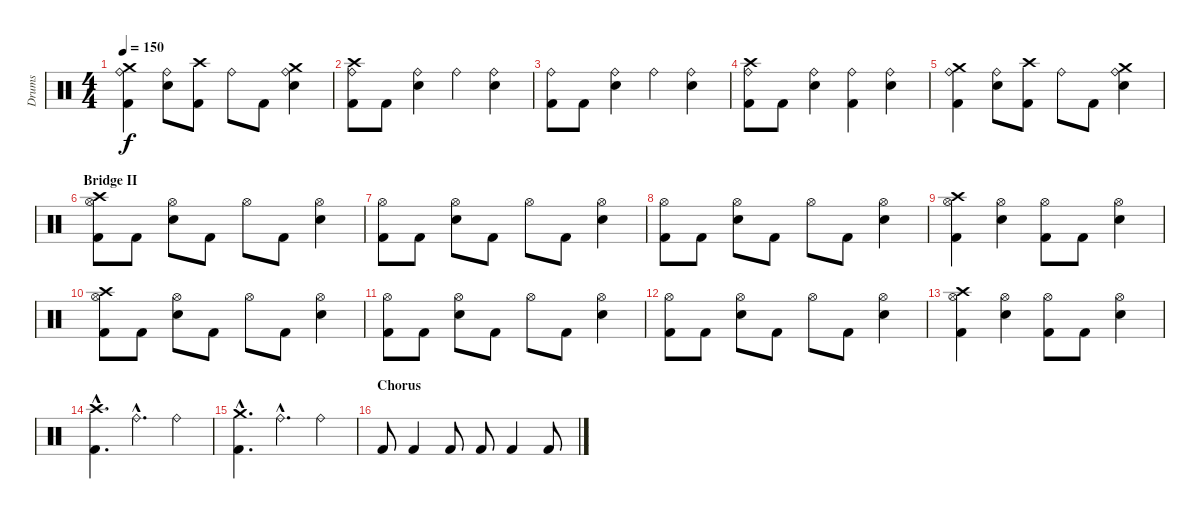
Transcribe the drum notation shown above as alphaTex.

\track ("Drums" "Drums") {instrument percussion}
\staff {score}
\articulation defaults
\ts (4 4)
\tempo 150
\clef neutral
\ks c
("Ride (bell)" "Kick (hit) 2" "Crash medium (hit)").4{dy f} ("Ride (bell)" "Electric Snare (hit)").8 ("Kick (hit) 2" "Crash high (hit)").8 "Ride (bell)".8 "Kick (hit) 2".8 ("Ride (bell)" "Electric Snare (hit)" "Crash medium (hit)").4 |
("Ride (bell)" "Kick (hit) 2" "Crash high (hit)").8 "Kick (hit) 2".8 ("Ride (bell)" "Electric Snare (hit)").4 "Ride (bell)".4 ("Ride (bell)" "Electric Snare (hit)").4 |
("Ride (bell)" "Kick (hit) 2").8 "Kick (hit) 2".8 ("Ride (bell)" "Electric Snare (hit)").4 "Ride (bell)".4 ("Ride (bell)" "Electric Snare (hit)").4 |
("Ride (bell)" "Kick (hit) 2" "Crash high (hit)").8 "Kick (hit) 2".8 ("Ride (bell)" "Electric Snare (hit)").4 ("Ride (bell)" "Kick (hit) 2").4 ("Ride (bell)" "Electric Snare (hit)").4 |
("Ride (bell)" "Kick (hit) 2" "Crash medium (hit)").4 ("Ride (bell)" "Electric Snare (hit)").8 ("Kick (hit) 2" "Crash high (hit)").8 "Ride (bell)".8 "Kick (hit) 2".8 ("Ride (bell)" "Electric Snare (hit)" "Crash medium (hit)").4 |
\section ("" "Bridge II")
("Hi-Hat (open)" "Kick (hit) 2" "Crash high (hit)").8 "Kick (hit) 2".8 ("Hi-Hat (open)" "Electric Snare (hit)").8 "Kick (hit) 2".8 "Hi-Hat (open)".8 "Kick (hit) 2".8 ("Hi-Hat (open)" "Electric Snare (hit)").4 |
("Hi-Hat (open)" "Kick (hit) 2").8 "Kick (hit) 2".8 ("Hi-Hat (open)" "Electric Snare (hit)").8 "Kick (hit) 2".8 "Hi-Hat (open)".8 "Kick (hit) 2".8 ("Hi-Hat (open)" "Electric Snare (hit)").4 |
("Hi-Hat (open)" "Kick (hit) 2").8 "Kick (hit) 2".8 ("Hi-Hat (open)" "Electric Snare (hit)").8 "Kick (hit) 2".8 "Hi-Hat (open)".8 "Kick (hit) 2".8 ("Hi-Hat (open)" "Electric Snare (hit)").4 |
("Hi-Hat (open)" "Kick (hit) 2" "Crash high (hit)").4 ("Hi-Hat (open)" "Electric Snare (hit)").4 ("Hi-Hat (open)" "Kick (hit) 2").8 "Kick (hit) 2".8 ("Hi-Hat (open)" "Electric Snare (hit)").4 |
("Hi-Hat (open)" "Kick (hit) 2" "Crash high (hit)").8 "Kick (hit) 2".8 ("Hi-Hat (open)" "Electric Snare (hit)").8 "Kick (hit) 2".8 "Hi-Hat (open)".8 "Kick (hit) 2".8 ("Hi-Hat (open)" "Electric Snare (hit)").4 |
("Hi-Hat (open)" "Kick (hit) 2").8 "Kick (hit) 2".8 ("Hi-Hat (open)" "Electric Snare (hit)").8 "Kick (hit) 2".8 "Hi-Hat (open)".8 "Kick (hit) 2".8 ("Hi-Hat (open)" "Electric Snare (hit)").4 |
("Hi-Hat (open)" "Kick (hit) 2").8 "Kick (hit) 2".8 ("Hi-Hat (open)" "Electric Snare (hit)").8 "Kick (hit) 2".8 "Hi-Hat (open)".8 "Kick (hit) 2".8 ("Hi-Hat (open)" "Electric Snare (hit)").4 |
("Hi-Hat (open)" "Kick (hit) 2" "Crash high (hit)").4 ("Hi-Hat (open)" "Electric Snare (hit)").4 ("Hi-Hat (open)" "Kick (hit) 2").8 "Kick (hit) 2".8 ("Hi-Hat (open)" "Electric Snare (hit)").4 |
("Crash high (hit)"{hac} "Kick (hit) 2"{hac}).4{d} "Ride (bell)"{hac}.4{d} "Ride (bell)".4 |
("Crash medium (hit)"{hac} "Kick (hit) 2"{hac}).4{d} "Ride (bell)"{hac}.4{d} "Ride (bell)".4 |
\section ("" "Chorus")
"Kick (hit) 2".8 "Kick (hit) 2".4 "Kick (hit) 2".8 "Kick (hit) 2".8 "Kick (hit) 2".4 "Kick (hit) 2".8
